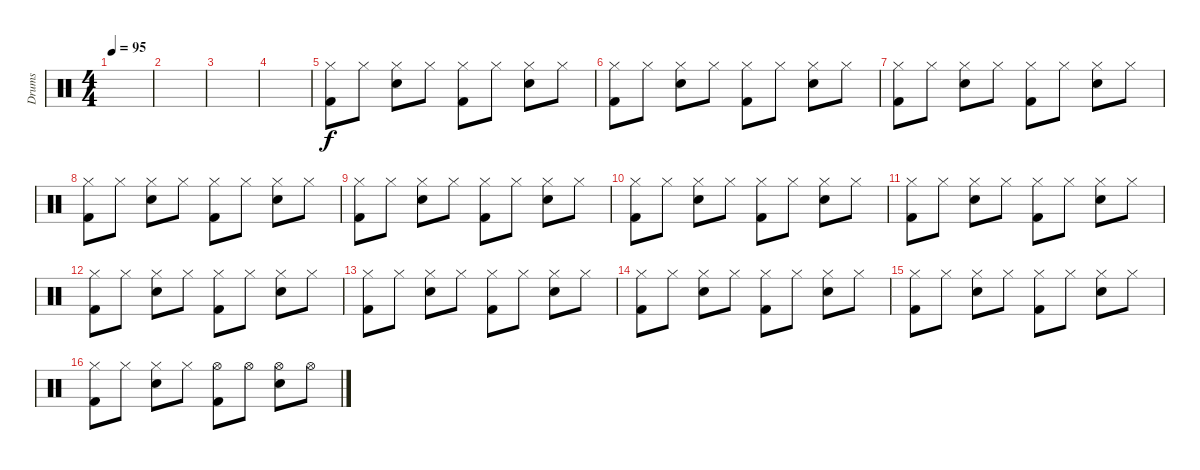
\track ("Drums" "Drums") {instrument percussion}
\staff {score}
\articulation defaults
\ts (4 4)
\tempo 95
\clef neutral
\ks c
|
|
|
|
("Hi-Hat (closed)" "Kick (hit) 2").8 "Hi-Hat (closed)".8 ("Hi-Hat (closed)" "Electric Snare (hit)").8 "Hi-Hat (closed)".8 ("Hi-Hat (closed)" "Kick (hit) 2").8 "Hi-Hat (closed)".8 ("Hi-Hat (closed)" "Electric Snare (hit)").8 "Hi-Hat (closed)".8 |
("Hi-Hat (closed)" "Kick (hit) 2").8 "Hi-Hat (closed)".8 ("Hi-Hat (closed)" "Electric Snare (hit)").8 "Hi-Hat (closed)".8 ("Hi-Hat (closed)" "Kick (hit) 2").8 "Hi-Hat (closed)".8 ("Hi-Hat (closed)" "Electric Snare (hit)").8 "Hi-Hat (closed)".8 |
("Hi-Hat (closed)" "Kick (hit) 2").8 "Hi-Hat (closed)".8 ("Hi-Hat (closed)" "Electric Snare (hit)").8 "Hi-Hat (closed)".8 ("Hi-Hat (closed)" "Kick (hit) 2").8 "Hi-Hat (closed)".8 ("Hi-Hat (closed)" "Electric Snare (hit)").8 "Hi-Hat (closed)".8 |
("Hi-Hat (closed)" "Kick (hit) 2").8 "Hi-Hat (closed)".8 ("Hi-Hat (closed)" "Electric Snare (hit)").8 "Hi-Hat (closed)".8 ("Hi-Hat (closed)" "Kick (hit) 2").8 "Hi-Hat (closed)".8 ("Hi-Hat (closed)" "Electric Snare (hit)").8 "Hi-Hat (closed)".8 |
("Hi-Hat (closed)" "Kick (hit) 2").8 "Hi-Hat (closed)".8 ("Hi-Hat (closed)" "Electric Snare (hit)").8 "Hi-Hat (closed)".8 ("Hi-Hat (closed)" "Kick (hit) 2").8 "Hi-Hat (closed)".8 ("Hi-Hat (closed)" "Electric Snare (hit)").8 "Hi-Hat (closed)".8 |
("Hi-Hat (closed)" "Kick (hit) 2").8 "Hi-Hat (closed)".8 ("Hi-Hat (closed)" "Electric Snare (hit)").8 "Hi-Hat (closed)".8 ("Hi-Hat (closed)" "Kick (hit) 2").8 "Hi-Hat (closed)".8 ("Hi-Hat (closed)" "Electric Snare (hit)").8 "Hi-Hat (closed)".8 |
("Hi-Hat (closed)" "Kick (hit) 2").8 "Hi-Hat (closed)".8 ("Hi-Hat (closed)" "Electric Snare (hit)").8 "Hi-Hat (closed)".8 ("Hi-Hat (closed)" "Kick (hit) 2").8 "Hi-Hat (closed)".8 ("Hi-Hat (closed)" "Electric Snare (hit)").8 "Hi-Hat (closed)".8 |
("Hi-Hat (closed)" "Kick (hit) 2").8 "Hi-Hat (closed)".8 ("Hi-Hat (closed)" "Electric Snare (hit)").8 "Hi-Hat (closed)".8 ("Hi-Hat (closed)" "Kick (hit) 2").8 "Hi-Hat (closed)".8 ("Hi-Hat (closed)" "Electric Snare (hit)").8 "Hi-Hat (closed)".8 |
("Hi-Hat (closed)" "Kick (hit) 2").8 "Hi-Hat (closed)".8 ("Hi-Hat (closed)" "Electric Snare (hit)").8 "Hi-Hat (closed)".8 ("Hi-Hat (closed)" "Kick (hit) 2").8 "Hi-Hat (closed)".8 ("Hi-Hat (closed)" "Electric Snare (hit)").8 "Hi-Hat (closed)".8 |
("Hi-Hat (closed)" "Kick (hit) 2").8 "Hi-Hat (closed)".8 ("Hi-Hat (closed)" "Electric Snare (hit)").8 "Hi-Hat (closed)".8 ("Hi-Hat (closed)" "Kick (hit) 2").8 "Hi-Hat (closed)".8 ("Hi-Hat (closed)" "Electric Snare (hit)").8 "Hi-Hat (closed)".8 |
("Hi-Hat (closed)" "Kick (hit) 2").8 "Hi-Hat (closed)".8 ("Hi-Hat (closed)" "Electric Snare (hit)").8 "Hi-Hat (closed)".8 ("Hi-Hat (closed)" "Kick (hit) 2").8 "Hi-Hat (closed)".8 ("Hi-Hat (closed)" "Electric Snare (hit)").8 "Hi-Hat (closed)".8 |
("Hi-Hat (closed)" "Kick (hit) 2").8 "Hi-Hat (closed)".8 ("Hi-Hat (closed)" "Electric Snare (hit)").8 "Hi-Hat (closed)".8 ("Hi-Hat (open)" "Kick (hit) 2").8 "Hi-Hat (open)".8 ("Hi-Hat (open)" "Electric Snare (hit)").8 "Hi-Hat (open)".8
